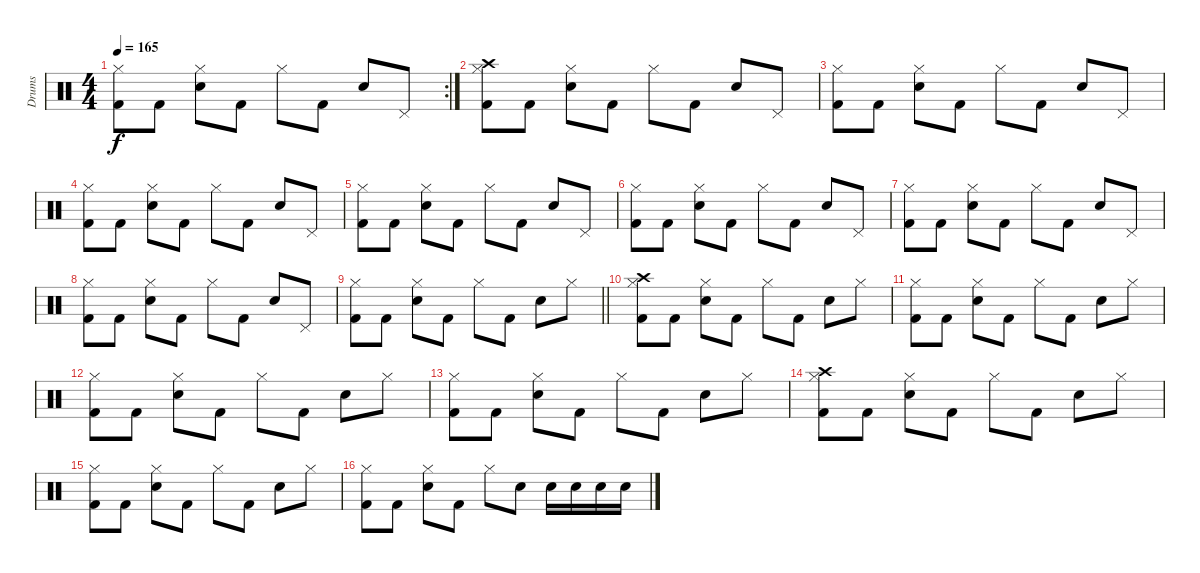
\track ("Drums" "Drums") {instrument percussion}
\staff {score}
\articulation defaults
\rc 2
\ts (4 4)
\tempo 165
\clef neutral
\ks c
("Kick (hit) 2" "Hi-Hat (closed)").8{dy f} "Kick (hit) 2".8 ("Snare (hit) 2" "Hi-Hat (closed)").8 "Kick (hit) 2".8 "Hi-Hat (closed)".8 "Kick (hit) 2".8 "Snare (hit) 2".8 "Pedal Hi-Hat (hit)".8 |
("Crash high (hit)" "Kick (hit) 2" "Hi-Hat (closed)").8 "Kick (hit) 2".8 ("Snare (hit) 2" "Hi-Hat (closed)").8 "Kick (hit) 2".8 "Hi-Hat (closed)".8 "Kick (hit) 2".8 "Snare (hit) 2".8 "Pedal Hi-Hat (hit)".8 |
("Kick (hit) 2" "Hi-Hat (closed)").8 "Kick (hit) 2".8 ("Snare (hit) 2" "Hi-Hat (closed)").8 "Kick (hit) 2".8 "Hi-Hat (closed)".8 "Kick (hit) 2".8 "Snare (hit) 2".8 "Pedal Hi-Hat (hit)".8 |
("Kick (hit) 2" "Hi-Hat (closed)").8 "Kick (hit) 2".8 ("Snare (hit) 2" "Hi-Hat (closed)").8 "Kick (hit) 2".8 "Hi-Hat (closed)".8 "Kick (hit) 2".8 "Snare (hit) 2".8 "Pedal Hi-Hat (hit)".8 |
("Kick (hit) 2" "Hi-Hat (closed)").8 "Kick (hit) 2".8 ("Snare (hit) 2" "Hi-Hat (closed)").8 "Kick (hit) 2".8 "Hi-Hat (closed)".8 "Kick (hit) 2".8 "Snare (hit) 2".8 "Pedal Hi-Hat (hit)".8 |
("Kick (hit) 2" "Hi-Hat (closed)").8 "Kick (hit) 2".8 ("Snare (hit) 2" "Hi-Hat (closed)").8 "Kick (hit) 2".8 "Hi-Hat (closed)".8 "Kick (hit) 2".8 "Snare (hit) 2".8 "Pedal Hi-Hat (hit)".8 |
("Kick (hit) 2" "Hi-Hat (closed)").8 "Kick (hit) 2".8 ("Snare (hit) 2" "Hi-Hat (closed)").8 "Kick (hit) 2".8 "Hi-Hat (closed)".8 "Kick (hit) 2".8 "Snare (hit) 2".8 "Pedal Hi-Hat (hit)".8 |
("Kick (hit) 2" "Hi-Hat (closed)").8 "Kick (hit) 2".8 ("Snare (hit) 2" "Hi-Hat (closed)").8 "Kick (hit) 2".8 "Hi-Hat (closed)".8 "Kick (hit) 2".8 "Snare (hit) 2".8 "Pedal Hi-Hat (hit)".8 |
\barLineRight lightlight
("Kick (hit) 2" "Hi-Hat (closed)").8 "Kick (hit) 2".8 ("Snare (hit) 2" "Hi-Hat (closed)").8 "Kick (hit) 2".8 "Hi-Hat (closed)".8 "Kick (hit) 2".8 "Snare (hit) 2".8 "Hi-Hat (closed)".8 |
("Crash high (hit)" "Kick (hit) 2" "Hi-Hat (closed)").8 "Kick (hit) 2".8 ("Snare (hit) 2" "Hi-Hat (closed)").8 "Kick (hit) 2".8 "Hi-Hat (closed)".8 "Kick (hit) 2".8 "Snare (hit) 2".8 "Hi-Hat (closed)".8 |
("Kick (hit) 2" "Hi-Hat (closed)").8 "Kick (hit) 2".8 ("Snare (hit) 2" "Hi-Hat (closed)").8 "Kick (hit) 2".8 "Hi-Hat (closed)".8 "Kick (hit) 2".8 "Snare (hit) 2".8 "Hi-Hat (closed)".8 |
("Kick (hit) 2" "Hi-Hat (closed)").8 "Kick (hit) 2".8 ("Snare (hit) 2" "Hi-Hat (closed)").8 "Kick (hit) 2".8 "Hi-Hat (closed)".8 "Kick (hit) 2".8 "Snare (hit) 2".8 "Hi-Hat (closed)".8 |
("Kick (hit) 2" "Hi-Hat (closed)").8 "Kick (hit) 2".8 ("Snare (hit) 2" "Hi-Hat (closed)").8 "Kick (hit) 2".8 "Hi-Hat (closed)".8 "Kick (hit) 2".8 "Snare (hit) 2".8 "Hi-Hat (closed)".8 |
("Crash high (hit)" "Kick (hit) 2" "Hi-Hat (closed)").8 "Kick (hit) 2".8 ("Snare (hit) 2" "Hi-Hat (closed)").8 "Kick (hit) 2".8 "Hi-Hat (closed)".8 "Kick (hit) 2".8 "Snare (hit) 2".8 "Hi-Hat (closed)".8 |
("Kick (hit) 2" "Hi-Hat (closed)").8 "Kick (hit) 2".8 ("Snare (hit) 2" "Hi-Hat (closed)").8 "Kick (hit) 2".8 "Hi-Hat (closed)".8 "Kick (hit) 2".8 "Snare (hit) 2".8 "Hi-Hat (closed)".8 |
("Kick (hit) 2" "Hi-Hat (closed)").8 "Kick (hit) 2".8 ("Snare (hit) 2" "Hi-Hat (closed)").8 "Kick (hit) 2".8 "Hi-Hat (closed)".8 "Snare (hit) 2".8 "Snare (hit) 2".16 "Snare (hit) 2".16 "Snare (hit) 2".16 "Snare (hit) 2".16
